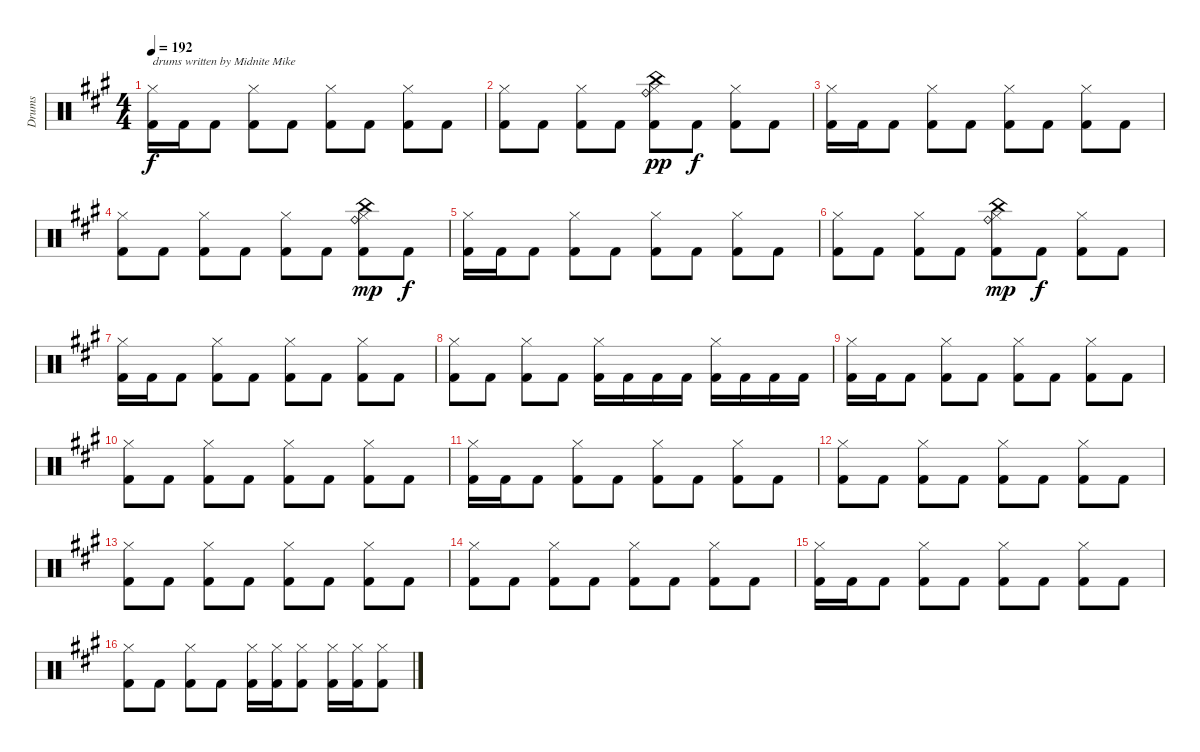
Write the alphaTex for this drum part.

\track ("Drums" "Drums") {instrument percussion}
\staff {score}
\articulation defaults
\ts (4 4)
\tempo 192
\clef neutral
\ks f#minor
("Hi-Hat (closed)" "Kick (hit) 2").16{txt "drums written by Midnite Mike" dy f} "Kick (hit) 2".16 "Kick (hit) 2".8 ("Hi-Hat (closed)" "Kick (hit) 2").8 "Kick (hit) 2".8 ("Hi-Hat (closed)" "Kick (hit) 2").8 "Kick (hit) 2".8 ("Hi-Hat (closed)" "Kick (hit) 2").8 "Kick (hit) 2".8 |
("Hi-Hat (closed)" "Kick (hit) 2").8 "Kick (hit) 2".8 ("Hi-Hat (closed)" "Kick (hit) 2").8 "Kick (hit) 2".8 ("Hi-Hat (closed)" "Ride (bell)" "China (hit)" "Kick (hit) 2").8{dy pp} "Kick (hit) 2".8{dy f} ("Hi-Hat (closed)" "Kick (hit) 2").8 "Kick (hit) 2".8 |
("Hi-Hat (closed)" "Kick (hit) 2").16 "Kick (hit) 2".16 "Kick (hit) 2".8 ("Hi-Hat (closed)" "Kick (hit) 2").8 "Kick (hit) 2".8 ("Hi-Hat (closed)" "Kick (hit) 2").8 "Kick (hit) 2".8 ("Hi-Hat (closed)" "Kick (hit) 2").8 "Kick (hit) 2".8 |
("Hi-Hat (closed)" "Kick (hit) 2").8 "Kick (hit) 2".8 ("Hi-Hat (closed)" "Kick (hit) 2").8 "Kick (hit) 2".8 ("Hi-Hat (closed)" "Kick (hit) 2").8 "Kick (hit) 2".8 ("Hi-Hat (closed)" "China (hit)" "Ride (bell)" "Kick (hit) 2").8{dy mp} "Kick (hit) 2".8{dy f} |
("Hi-Hat (closed)" "Kick (hit) 2").16 "Kick (hit) 2".16 "Kick (hit) 2".8 ("Hi-Hat (closed)" "Kick (hit) 2").8 "Kick (hit) 2".8 ("Hi-Hat (closed)" "Kick (hit) 2").8 "Kick (hit) 2".8 ("Hi-Hat (closed)" "Kick (hit) 2").8 "Kick (hit) 2".8 |
("Hi-Hat (closed)" "Kick (hit) 2").8 "Kick (hit) 2".8 ("Hi-Hat (closed)" "Kick (hit) 2").8 "Kick (hit) 2".8 ("Hi-Hat (closed)" "China (hit)" "Ride (bell)" "Kick (hit) 2").8{dy mp} "Kick (hit) 2".8{dy f} ("Hi-Hat (closed)" "Kick (hit) 2").8 "Kick (hit) 2".8 |
("Hi-Hat (closed)" "Kick (hit) 2").16 "Kick (hit) 2".16 "Kick (hit) 2".8 ("Hi-Hat (closed)" "Kick (hit) 2").8 "Kick (hit) 2".8 ("Hi-Hat (closed)" "Kick (hit) 2").8 "Kick (hit) 2".8 ("Hi-Hat (closed)" "Kick (hit) 2").8 "Kick (hit) 2".8 |
("Hi-Hat (closed)" "Kick (hit) 2").8 "Kick (hit) 2".8 ("Hi-Hat (closed)" "Kick (hit) 2").8 "Kick (hit) 2".8 ("Hi-Hat (closed)" "Kick (hit) 2").16 "Kick (hit) 2".16 "Kick (hit) 2".16 "Kick (hit) 2".16 ("Hi-Hat (closed)" "Kick (hit) 2").16 "Kick (hit) 2".16 "Kick (hit) 2".16 "Kick (hit) 2".16 |
("Hi-Hat (closed)" "Kick (hit) 2").16 "Kick (hit) 2".16 "Kick (hit) 2".8 ("Hi-Hat (closed)" "Kick (hit) 2").8 "Kick (hit) 2".8 ("Hi-Hat (closed)" "Kick (hit) 2").8 "Kick (hit) 2".8 ("Hi-Hat (closed)" "Kick (hit) 2").8 "Kick (hit) 2".8 |
("Hi-Hat (closed)" "Kick (hit) 2").8 "Kick (hit) 2".8 ("Hi-Hat (closed)" "Kick (hit) 2").8 "Kick (hit) 2".8 ("Hi-Hat (closed)" "Kick (hit) 2").8 "Kick (hit) 2".8 ("Hi-Hat (closed)" "Kick (hit) 2").8 "Kick (hit) 2".8 |
("Hi-Hat (closed)" "Kick (hit) 2").16 "Kick (hit) 2".16 "Kick (hit) 2".8 ("Hi-Hat (closed)" "Kick (hit) 2").8 "Kick (hit) 2".8 ("Hi-Hat (closed)" "Kick (hit) 2").8 "Kick (hit) 2".8 ("Hi-Hat (closed)" "Kick (hit) 2").8 "Kick (hit) 2".8 |
("Hi-Hat (closed)" "Kick (hit) 2").8 "Kick (hit) 2".8 ("Hi-Hat (closed)" "Kick (hit) 2").8 "Kick (hit) 2".8 ("Hi-Hat (closed)" "Kick (hit) 2").8 "Kick (hit) 2".8 ("Hi-Hat (closed)" "Kick (hit) 2").8 "Kick (hit) 2".8 |
("Hi-Hat (closed)" "Kick (hit) 2").8 "Kick (hit) 2".8 ("Hi-Hat (closed)" "Kick (hit) 2").8 "Kick (hit) 2".8 ("Hi-Hat (closed)" "Kick (hit) 2").8 "Kick (hit) 2".8 ("Hi-Hat (closed)" "Kick (hit) 2").8 "Kick (hit) 2".8 |
("Hi-Hat (closed)" "Kick (hit) 2").8 "Kick (hit) 2".8 ("Hi-Hat (closed)" "Kick (hit) 2").8 "Kick (hit) 2".8 ("Hi-Hat (closed)" "Kick (hit) 2").8 "Kick (hit) 2".8 ("Hi-Hat (closed)" "Kick (hit) 2").8 "Kick (hit) 2".8 |
("Hi-Hat (closed)" "Kick (hit) 2").16 "Kick (hit) 2".16 "Kick (hit) 2".8 ("Hi-Hat (closed)" "Kick (hit) 2").8 "Kick (hit) 2".8 ("Hi-Hat (closed)" "Kick (hit) 2").8 "Kick (hit) 2".8 ("Hi-Hat (closed)" "Kick (hit) 2").8 "Kick (hit) 2".8 |
("Hi-Hat (closed)" "Kick (hit) 2").8 "Kick (hit) 2".8 ("Hi-Hat (closed)" "Kick (hit) 2").8 "Kick (hit) 2".8 ("Hi-Hat (closed)" "Kick (hit) 2").16 ("Hi-Hat (closed)" "Kick (hit) 2").16 ("Hi-Hat (closed)" "Kick (hit) 2").8 ("Hi-Hat (closed)" "Kick (hit) 2").16 ("Hi-Hat (closed)" "Kick (hit) 2").16 ("Hi-Hat (closed)" "Kick (hit) 2").8
